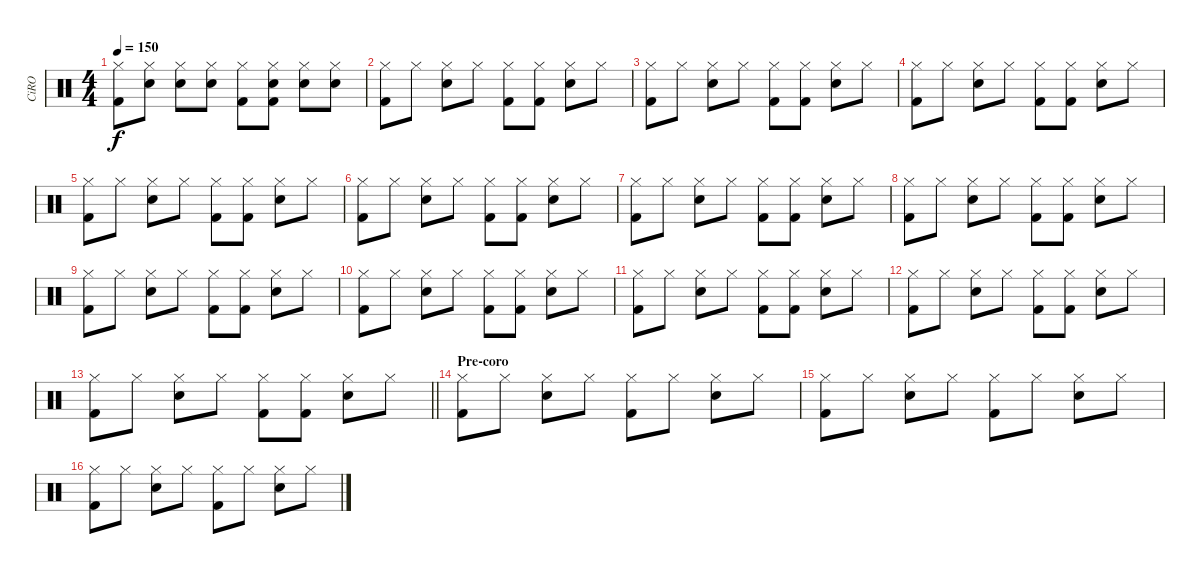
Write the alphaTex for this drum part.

\track ("CiRO" "CiRO") {instrument percussion}
\staff {score}
\articulation defaults
\ts (4 4)
\tempo 150
\clef neutral
\ks c
("Hi-Hat (closed)" "Kick (hit) 2").8{dy f} ("Hi-Hat (closed)" "Electric Snare (hit)").8 ("Hi-Hat (closed)" "Electric Snare (hit)").8 ("Hi-Hat (closed)" "Electric Snare (hit)").8 ("Hi-Hat (closed)" "Kick (hit) 2").8 ("Hi-Hat (closed)" "Electric Snare (hit)" "Kick (hit) 2").8 ("Hi-Hat (closed)" "Electric Snare (hit)").8 ("Hi-Hat (closed)" "Electric Snare (hit)").8 |
("Hi-Hat (closed)" "Kick (hit) 2").8 "Hi-Hat (closed)".8 ("Hi-Hat (closed)" "Electric Snare (hit)").8 "Hi-Hat (closed)".8 ("Hi-Hat (closed)" "Kick (hit) 2").8 ("Hi-Hat (closed)" "Kick (hit) 2").8 ("Hi-Hat (closed)" "Electric Snare (hit)").8 "Hi-Hat (closed)".8 |
("Hi-Hat (closed)" "Kick (hit) 2").8 "Hi-Hat (closed)".8 ("Hi-Hat (closed)" "Electric Snare (hit)").8 "Hi-Hat (closed)".8 ("Hi-Hat (closed)" "Kick (hit) 2").8 ("Hi-Hat (closed)" "Kick (hit) 2").8 ("Hi-Hat (closed)" "Electric Snare (hit)").8 "Hi-Hat (closed)".8 |
("Hi-Hat (closed)" "Kick (hit) 2").8 "Hi-Hat (closed)".8 ("Hi-Hat (closed)" "Electric Snare (hit)").8 "Hi-Hat (closed)".8 ("Hi-Hat (closed)" "Kick (hit) 2").8 ("Hi-Hat (closed)" "Kick (hit) 2").8 ("Hi-Hat (closed)" "Electric Snare (hit)").8 "Hi-Hat (closed)".8 |
("Hi-Hat (closed)" "Kick (hit) 2").8 "Hi-Hat (closed)".8 ("Hi-Hat (closed)" "Electric Snare (hit)").8 "Hi-Hat (closed)".8 ("Hi-Hat (closed)" "Kick (hit) 2").8 ("Hi-Hat (closed)" "Kick (hit) 2").8 ("Hi-Hat (closed)" "Electric Snare (hit)").8 "Hi-Hat (closed)".8 |
("Hi-Hat (closed)" "Kick (hit) 2").8 "Hi-Hat (closed)".8 ("Hi-Hat (closed)" "Electric Snare (hit)").8 "Hi-Hat (closed)".8 ("Hi-Hat (closed)" "Kick (hit) 2").8 ("Hi-Hat (closed)" "Kick (hit) 2").8 ("Hi-Hat (closed)" "Electric Snare (hit)").8 "Hi-Hat (closed)".8 |
("Hi-Hat (closed)" "Kick (hit) 2").8 "Hi-Hat (closed)".8 ("Hi-Hat (closed)" "Electric Snare (hit)").8 "Hi-Hat (closed)".8 ("Hi-Hat (closed)" "Kick (hit) 2").8 ("Hi-Hat (closed)" "Kick (hit) 2").8 ("Hi-Hat (closed)" "Electric Snare (hit)").8 "Hi-Hat (closed)".8 |
("Hi-Hat (closed)" "Kick (hit) 2").8 "Hi-Hat (closed)".8 ("Hi-Hat (closed)" "Electric Snare (hit)").8 "Hi-Hat (closed)".8 ("Hi-Hat (closed)" "Kick (hit) 2").8 ("Hi-Hat (closed)" "Kick (hit) 2").8 ("Hi-Hat (closed)" "Electric Snare (hit)").8 "Hi-Hat (closed)".8 |
("Hi-Hat (closed)" "Kick (hit) 2").8 "Hi-Hat (closed)".8 ("Hi-Hat (closed)" "Electric Snare (hit)").8 "Hi-Hat (closed)".8 ("Hi-Hat (closed)" "Kick (hit) 2").8 ("Hi-Hat (closed)" "Kick (hit) 2").8 ("Hi-Hat (closed)" "Electric Snare (hit)").8 "Hi-Hat (closed)".8 |
("Hi-Hat (closed)" "Kick (hit) 2").8 "Hi-Hat (closed)".8 ("Hi-Hat (closed)" "Electric Snare (hit)").8 "Hi-Hat (closed)".8 ("Hi-Hat (closed)" "Kick (hit) 2").8 ("Hi-Hat (closed)" "Kick (hit) 2").8 ("Hi-Hat (closed)" "Electric Snare (hit)").8 "Hi-Hat (closed)".8 |
("Hi-Hat (closed)" "Kick (hit) 2").8 "Hi-Hat (closed)".8 ("Hi-Hat (closed)" "Electric Snare (hit)").8 "Hi-Hat (closed)".8 ("Hi-Hat (closed)" "Kick (hit) 2").8 ("Hi-Hat (closed)" "Kick (hit) 2").8 ("Hi-Hat (closed)" "Electric Snare (hit)").8 "Hi-Hat (closed)".8 |
("Hi-Hat (closed)" "Kick (hit) 2").8 "Hi-Hat (closed)".8 ("Hi-Hat (closed)" "Electric Snare (hit)").8 "Hi-Hat (closed)".8 ("Hi-Hat (closed)" "Kick (hit) 2").8 ("Hi-Hat (closed)" "Kick (hit) 2").8 ("Hi-Hat (closed)" "Electric Snare (hit)").8 "Hi-Hat (closed)".8 |
\barLineRight lightlight
("Hi-Hat (closed)" "Kick (hit) 2").8 "Hi-Hat (closed)".8 ("Hi-Hat (closed)" "Electric Snare (hit)").8 "Hi-Hat (closed)".8 ("Hi-Hat (closed)" "Kick (hit) 2").8 ("Hi-Hat (closed)" "Kick (hit) 2").8 ("Hi-Hat (closed)" "Electric Snare (hit)").8 "Hi-Hat (closed)".8 |
\section ("" "Pre-coro")
("Hi-Hat (closed)" "Kick (hit) 2").8 "Hi-Hat (closed)".8 ("Hi-Hat (closed)" "Electric Snare (hit)").8 "Hi-Hat (closed)".8 ("Hi-Hat (closed)" "Kick (hit) 2").8 "Hi-Hat (closed)".8 ("Hi-Hat (closed)" "Electric Snare (hit)").8 "Hi-Hat (closed)".8 |
("Hi-Hat (closed)" "Kick (hit) 2").8 "Hi-Hat (closed)".8 ("Hi-Hat (closed)" "Electric Snare (hit)").8 "Hi-Hat (closed)".8 ("Hi-Hat (closed)" "Kick (hit) 2").8 "Hi-Hat (closed)".8 ("Hi-Hat (closed)" "Electric Snare (hit)").8 "Hi-Hat (closed)".8 |
("Hi-Hat (closed)" "Kick (hit) 2").8 "Hi-Hat (closed)".8 ("Hi-Hat (closed)" "Electric Snare (hit)").8 "Hi-Hat (closed)".8 ("Hi-Hat (closed)" "Kick (hit) 2").8 "Hi-Hat (closed)".8 ("Hi-Hat (closed)" "Electric Snare (hit)").8 "Hi-Hat (closed)".8
